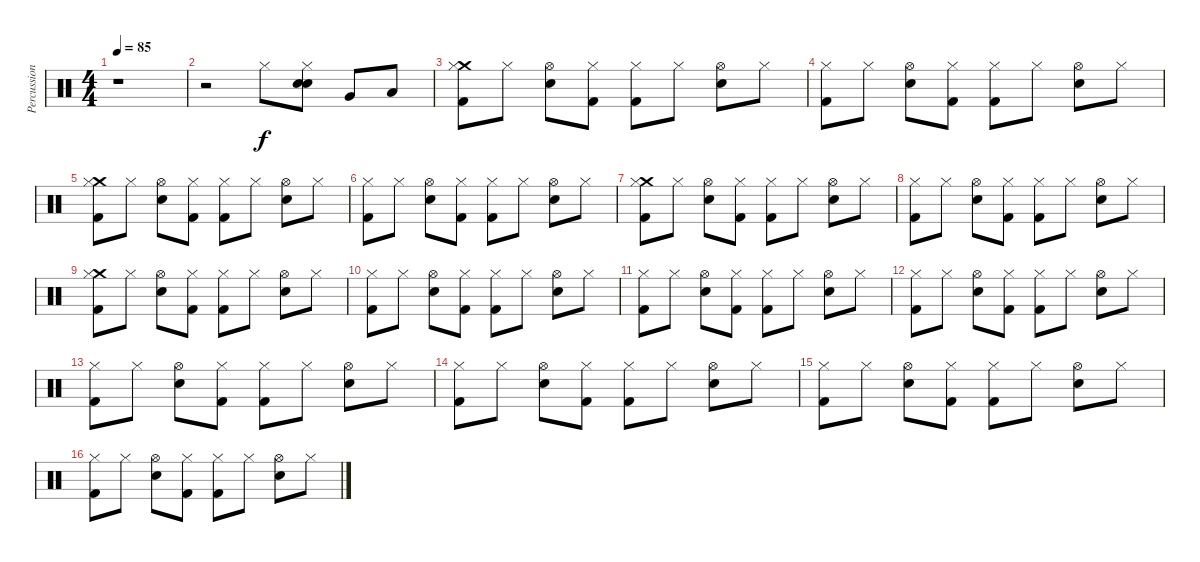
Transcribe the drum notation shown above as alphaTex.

\track ("Percussion" "Percussion") {instrument percussion}
\staff {score}
\articulation defaults
\ts (4 4)
\tempo 85
\clef neutral
\ks c
r.1{dy f} |
r.2 "Hi-Hat (closed)".8 ("Electric Snare (hit)" "Hi-Hat (closed)" "Electric Snare (hit)").8 "Very Low Tom (hit)".8 "Low Floor Tom (hit)".8 |
("Crash medium (hit)" "Kick (hit) 2" "Hi-Hat (closed)").8 "Hi-Hat (closed)".8 ("Hi-Hat (open)" "Electric Snare (hit)").8 ("Kick (hit) 2" "Hi-Hat (closed)").8 ("Kick (hit) 2" "Hi-Hat (closed)").8 "Hi-Hat (closed)".8 ("Hi-Hat (open)" "Electric Snare (hit)").8 "Hi-Hat (closed)".8 |
("Kick (hit) 2" "Hi-Hat (closed)").8 "Hi-Hat (closed)".8 ("Hi-Hat (open)" "Electric Snare (hit)").8 ("Kick (hit) 2" "Hi-Hat (closed)").8 ("Kick (hit) 2" "Hi-Hat (closed)").8 "Hi-Hat (closed)".8 ("Hi-Hat (open)" "Electric Snare (hit)").8 "Hi-Hat (closed)".8 |
("Crash medium (hit)" "Kick (hit) 2" "Hi-Hat (closed)").8 "Hi-Hat (closed)".8 ("Hi-Hat (open)" "Electric Snare (hit)").8 ("Kick (hit) 2" "Hi-Hat (closed)").8 ("Kick (hit) 2" "Hi-Hat (closed)").8 "Hi-Hat (closed)".8 ("Hi-Hat (open)" "Electric Snare (hit)").8 "Hi-Hat (closed)".8 |
("Kick (hit) 2" "Hi-Hat (closed)").8 "Hi-Hat (closed)".8 ("Hi-Hat (open)" "Electric Snare (hit)").8 ("Kick (hit) 2" "Hi-Hat (closed)").8 ("Kick (hit) 2" "Hi-Hat (closed)").8 "Hi-Hat (closed)".8 ("Hi-Hat (open)" "Electric Snare (hit)").8 "Hi-Hat (closed)".8 |
("Crash medium (hit)" "Kick (hit) 2" "Hi-Hat (closed)").8 "Hi-Hat (closed)".8 ("Hi-Hat (open)" "Electric Snare (hit)").8 ("Kick (hit) 2" "Hi-Hat (closed)").8 ("Kick (hit) 2" "Hi-Hat (closed)").8 "Hi-Hat (closed)".8 ("Hi-Hat (open)" "Electric Snare (hit)").8 "Hi-Hat (closed)".8 |
("Kick (hit) 2" "Hi-Hat (closed)").8 "Hi-Hat (closed)".8 ("Hi-Hat (open)" "Electric Snare (hit)").8 ("Kick (hit) 2" "Hi-Hat (closed)").8 ("Kick (hit) 2" "Hi-Hat (closed)").8 "Hi-Hat (closed)".8 ("Hi-Hat (open)" "Electric Snare (hit)").8 "Hi-Hat (closed)".8 |
("Crash medium (hit)" "Kick (hit) 2" "Hi-Hat (closed)").8 "Hi-Hat (closed)".8 ("Hi-Hat (open)" "Electric Snare (hit)").8 ("Kick (hit) 2" "Hi-Hat (closed)").8 ("Kick (hit) 2" "Hi-Hat (closed)").8 "Hi-Hat (closed)".8 ("Hi-Hat (open)" "Electric Snare (hit)").8 "Hi-Hat (closed)".8 |
("Kick (hit) 2" "Hi-Hat (closed)").8 "Hi-Hat (closed)".8 ("Hi-Hat (open)" "Electric Snare (hit)").8 ("Kick (hit) 2" "Hi-Hat (closed)").8 ("Kick (hit) 2" "Hi-Hat (closed)").8 "Hi-Hat (closed)".8 ("Hi-Hat (open)" "Electric Snare (hit)").8 "Hi-Hat (closed)".8 |
("Kick (hit) 2" "Hi-Hat (closed)").8 "Hi-Hat (closed)".8 ("Hi-Hat (open)" "Electric Snare (hit)").8 ("Kick (hit) 2" "Hi-Hat (closed)").8 ("Kick (hit) 2" "Hi-Hat (closed)").8 "Hi-Hat (closed)".8 ("Hi-Hat (open)" "Electric Snare (hit)").8 "Hi-Hat (closed)".8 |
("Kick (hit) 2" "Hi-Hat (closed)").8 "Hi-Hat (closed)".8 ("Hi-Hat (open)" "Electric Snare (hit)").8 ("Kick (hit) 2" "Hi-Hat (closed)").8 ("Kick (hit) 2" "Hi-Hat (closed)").8 "Hi-Hat (closed)".8 ("Hi-Hat (open)" "Electric Snare (hit)").8 "Hi-Hat (closed)".8 |
("Kick (hit) 2" "Hi-Hat (closed)").8 "Hi-Hat (closed)".8 ("Hi-Hat (open)" "Electric Snare (hit)").8 ("Kick (hit) 2" "Hi-Hat (closed)").8 ("Kick (hit) 2" "Hi-Hat (closed)").8 "Hi-Hat (closed)".8 ("Hi-Hat (open)" "Electric Snare (hit)").8 "Hi-Hat (closed)".8 |
("Kick (hit) 2" "Hi-Hat (closed)").8 "Hi-Hat (closed)".8 ("Hi-Hat (open)" "Electric Snare (hit)").8 ("Kick (hit) 2" "Hi-Hat (closed)").8 ("Kick (hit) 2" "Hi-Hat (closed)").8 "Hi-Hat (closed)".8 ("Hi-Hat (open)" "Electric Snare (hit)").8 "Hi-Hat (closed)".8 |
("Kick (hit) 2" "Hi-Hat (closed)").8 "Hi-Hat (closed)".8 ("Hi-Hat (open)" "Electric Snare (hit)").8 ("Kick (hit) 2" "Hi-Hat (closed)").8 ("Kick (hit) 2" "Hi-Hat (closed)").8 "Hi-Hat (closed)".8 ("Hi-Hat (open)" "Electric Snare (hit)").8 "Hi-Hat (closed)".8 |
("Kick (hit) 2" "Hi-Hat (closed)").8 "Hi-Hat (closed)".8 ("Hi-Hat (open)" "Electric Snare (hit)").8 ("Kick (hit) 2" "Hi-Hat (closed)").8 ("Kick (hit) 2" "Hi-Hat (closed)").8 "Hi-Hat (closed)".8 ("Hi-Hat (open)" "Electric Snare (hit)").8 "Hi-Hat (closed)".8
